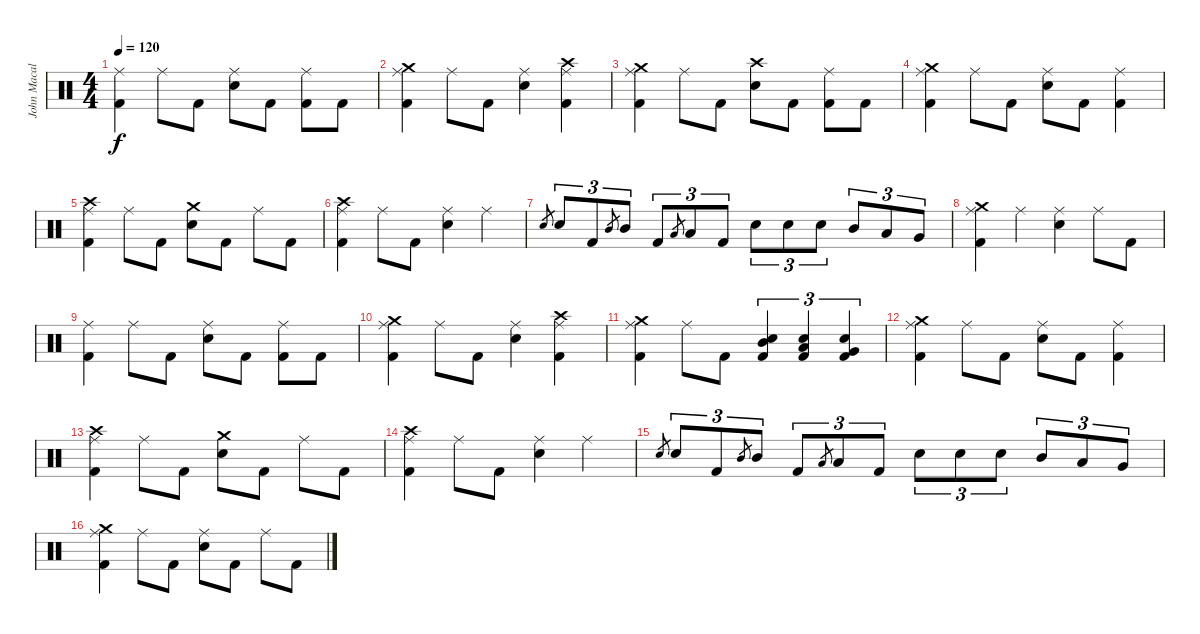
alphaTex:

\track ("John Macaluso" "John Macal") {instrument percussion}
\staff {score}
\articulation defaults
\ts (4 4)
\tempo 120
\clef neutral
\ks c
("Ride (middle)" "Kick (hit) 2").4{dy f} "Ride (middle)".8 "Kick (hit) 2".8 ("Ride (middle)" "Snare (hit) 2").8 "Kick (hit) 2".8 ("Ride (middle)" "Kick (hit) 2").8 "Kick (hit) 2".8 |
("Crash medium (hit)" "Ride (middle)" "Kick (hit) 2").4 "Ride (middle)".8 "Kick (hit) 2".8 ("Ride (middle)" "Snare (hit) 2").4 ("Crash high (hit)" "Ride (middle)" "Kick (hit) 2").4 |
("Crash medium (hit)" "Ride (middle)" "Kick (hit) 2").4 "Ride (middle)".8 "Kick (hit) 2".8 ("Crash high (hit)" "Snare (hit) 2").8 "Kick (hit) 2".8 ("Ride (middle)" "Kick (hit) 2").8 "Kick (hit) 2".8 |
("Crash medium (hit)" "Ride (middle)" "Kick (hit) 2").4 "Ride (middle)".8 "Kick (hit) 2".8 ("Ride (middle)" "Snare (hit) 2").8 "Kick (hit) 2".8 ("Ride (middle)" "Kick (hit) 2").4 |
("Crash high (hit)" "Ride (middle)" "Kick (hit) 2").4 "Ride (middle)".8 "Kick (hit) 2".8 ("Crash medium (hit)" "Snare (hit) 2").8 "Kick (hit) 2".8 "Ride (middle)".8 "Kick (hit) 2".8 |
("Crash high (hit)" "Ride (middle)" "Kick (hit) 2").4 "Ride (middle)".8 "Kick (hit) 2".8 ("Ride (middle)" "Snare (hit) 2").4 "Ride (middle)".4 |
"Snare (hit) 2".8{gr} "Snare (hit) 2".8{tu (3 2)} "Kick (hit) 2".8{tu (3 2)} "Mid Tom (hit)".8{gr} "Mid Tom (hit)".8{tu (3 2)} "Kick (hit) 2".8{tu (3 2)} "Low Tom (hit)".8{gr} "Low Tom (hit)".8{tu (3 2)} "Kick (hit) 2".8{tu (3 2)} "Snare (hit) 2".8{tu (3 2)} "Snare (hit) 2".8{tu (3 2)} "Snare (hit) 2".8{tu (3 2)} "Mid Tom (hit)".8{tu (3 2)} "Low Tom (hit)".8{tu (3 2)} "Very Low Tom (hit)".8{tu (3 2)} |
("Crash medium (hit)" "Ride (middle)" "Kick (hit) 2").4 "Ride (middle)".4 ("Ride (middle)" "Snare (hit) 2").4 "Ride (middle)".8 "Kick (hit) 2".8 |
("Ride (middle)" "Kick (hit) 2").4 "Ride (middle)".8 "Kick (hit) 2".8 ("Ride (middle)" "Snare (hit) 2").8 "Kick (hit) 2".8 ("Ride (middle)" "Kick (hit) 2").8 "Kick (hit) 2".8 |
("Crash medium (hit)" "Ride (middle)" "Kick (hit) 2").4 "Ride (middle)".8 "Kick (hit) 2".8 ("Ride (middle)" "Snare (hit) 2").4 ("Crash high (hit)" "Ride (middle)" "Kick (hit) 2").4 |
("Crash medium (hit)" "Ride (middle)" "Kick (hit) 2").4 "Ride (middle)".8 "Kick (hit) 2".8 ("Mid Tom (hit)" "Snare (hit) 2" "Kick (hit) 2").4{tu (3 2)} ("Low Tom (hit)" "Snare (hit) 2" "Kick (hit) 2").4{tu (3 2)} ("Very Low Tom (hit)" "Snare (hit) 2" "Kick (hit) 2").4{tu (3 2)} |
("Crash medium (hit)" "Ride (middle)" "Kick (hit) 2").4 "Ride (middle)".8 "Kick (hit) 2".8 ("Ride (middle)" "Snare (hit) 2").8 "Kick (hit) 2".8 ("Ride (middle)" "Kick (hit) 2").4 |
("Crash high (hit)" "Ride (middle)" "Kick (hit) 2").4 "Ride (middle)".8 "Kick (hit) 2".8 ("Crash medium (hit)" "Snare (hit) 2").8 "Kick (hit) 2".8 "Ride (middle)".8 "Kick (hit) 2".8 |
("Crash high (hit)" "Ride (middle)" "Kick (hit) 2").4 "Ride (middle)".8 "Kick (hit) 2".8 ("Ride (middle)" "Snare (hit) 2").4 "Ride (middle)".4 |
"Snare (hit) 2".8{gr} "Snare (hit) 2".8{tu (3 2)} "Kick (hit) 2".8{tu (3 2)} "Mid Tom (hit)".8{gr} "Mid Tom (hit)".8{tu (3 2)} "Kick (hit) 2".8{tu (3 2)} "Low Tom (hit)".8{gr} "Low Tom (hit)".8{tu (3 2)} "Kick (hit) 2".8{tu (3 2)} "Snare (hit) 2".8{tu (3 2)} "Snare (hit) 2".8{tu (3 2)} "Snare (hit) 2".8{tu (3 2)} "Mid Tom (hit)".8{tu (3 2)} "Low Tom (hit)".8{tu (3 2)} "Very Low Tom (hit)".8{tu (3 2)} |
("Crash medium (hit)" "Ride (middle)" "Kick (hit) 2").4 "Ride (middle)".8 "Kick (hit) 2".8 ("Ride (middle)" "Snare (hit) 2").8 "Kick (hit) 2".8 "Ride (middle)".8 "Kick (hit) 2".8
